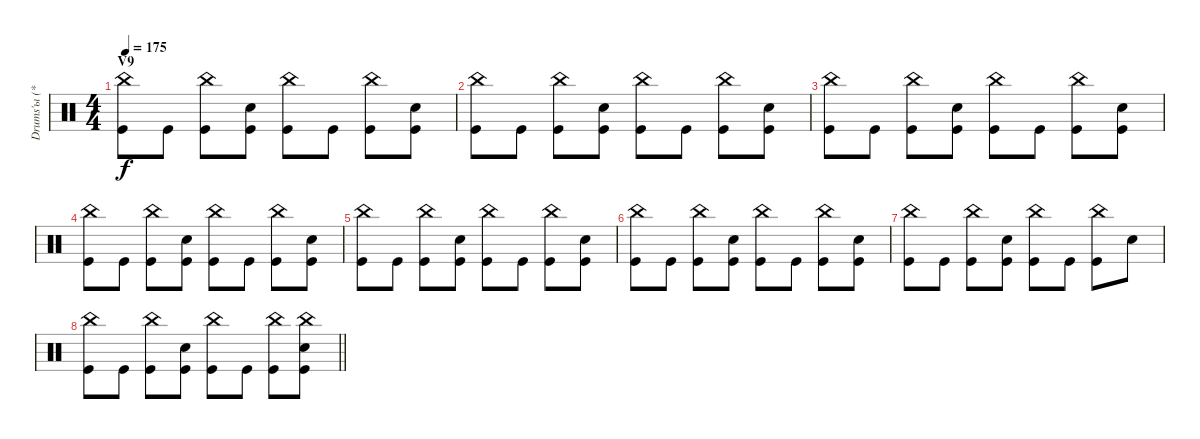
\track ("Drums'ы (***)" "Drums'ы (*") {instrument percussion}
\staff {score}
\articulation defaults
\ts (4 4)
\section ("" "V9")
\tempo 175
\clef neutral
\ks c
("China (hit)" "Kick (hit)").8{dy f} "Kick (hit)".8 ("China (hit)" "Kick (hit)").8 ("Electric Snare (hit)" "Kick (hit)").8 ("China (hit)" "Kick (hit)").8 "Kick (hit)".8 ("China (hit)" "Kick (hit)").8 ("Electric Snare (hit)" "Kick (hit)").8 |
("China (hit)" "Kick (hit)").8 "Kick (hit)".8 ("China (hit)" "Kick (hit)").8 ("Electric Snare (hit)" "Kick (hit)").8 ("China (hit)" "Kick (hit)").8 "Kick (hit)".8 ("China (hit)" "Kick (hit)").8 ("Electric Snare (hit)" "Kick (hit)").8 |
("China (hit)" "Kick (hit)").8 "Kick (hit)".8 ("China (hit)" "Kick (hit)").8 ("Electric Snare (hit)" "Kick (hit)").8 ("China (hit)" "Kick (hit)").8 "Kick (hit)".8 ("China (hit)" "Kick (hit)").8 ("Electric Snare (hit)" "Kick (hit)").8 |
("China (hit)" "Kick (hit)").8 "Kick (hit)".8 ("China (hit)" "Kick (hit)").8 ("Electric Snare (hit)" "Kick (hit)").8 ("China (hit)" "Kick (hit)").8 "Kick (hit)".8 ("China (hit)" "Kick (hit)").8 ("Electric Snare (hit)" "Kick (hit)").8 |
("China (hit)" "Kick (hit)").8 "Kick (hit)".8 ("China (hit)" "Kick (hit)").8 ("Electric Snare (hit)" "Kick (hit)").8 ("China (hit)" "Kick (hit)").8 "Kick (hit)".8 ("China (hit)" "Kick (hit)").8 ("Electric Snare (hit)" "Kick (hit)").8 |
("China (hit)" "Kick (hit)").8 "Kick (hit)".8 ("China (hit)" "Kick (hit)").8 ("Electric Snare (hit)" "Kick (hit)").8 ("China (hit)" "Kick (hit)").8 "Kick (hit)".8 ("China (hit)" "Kick (hit)").8 ("Electric Snare (hit)" "Kick (hit)").8 |
("China (hit)" "Kick (hit)").8 "Kick (hit)".8 ("China (hit)" "Kick (hit)").8 ("Electric Snare (hit)" "Kick (hit)").8 ("China (hit)" "Kick (hit)").8 "Kick (hit)".8 ("China (hit)" "Kick (hit)").8 "Electric Snare (hit)".8 |
\barLineRight lightlight
("China (hit)" "Kick (hit)").8 "Kick (hit)".8 ("China (hit)" "Kick (hit)").8 ("Electric Snare (hit)" "Kick (hit)").8 ("China (hit)" "Kick (hit)").8 "Kick (hit)".8 ("China (hit)" "Kick (hit)").8 ("China (hit)" "Electric Snare (hit)" "Kick (hit)").8
